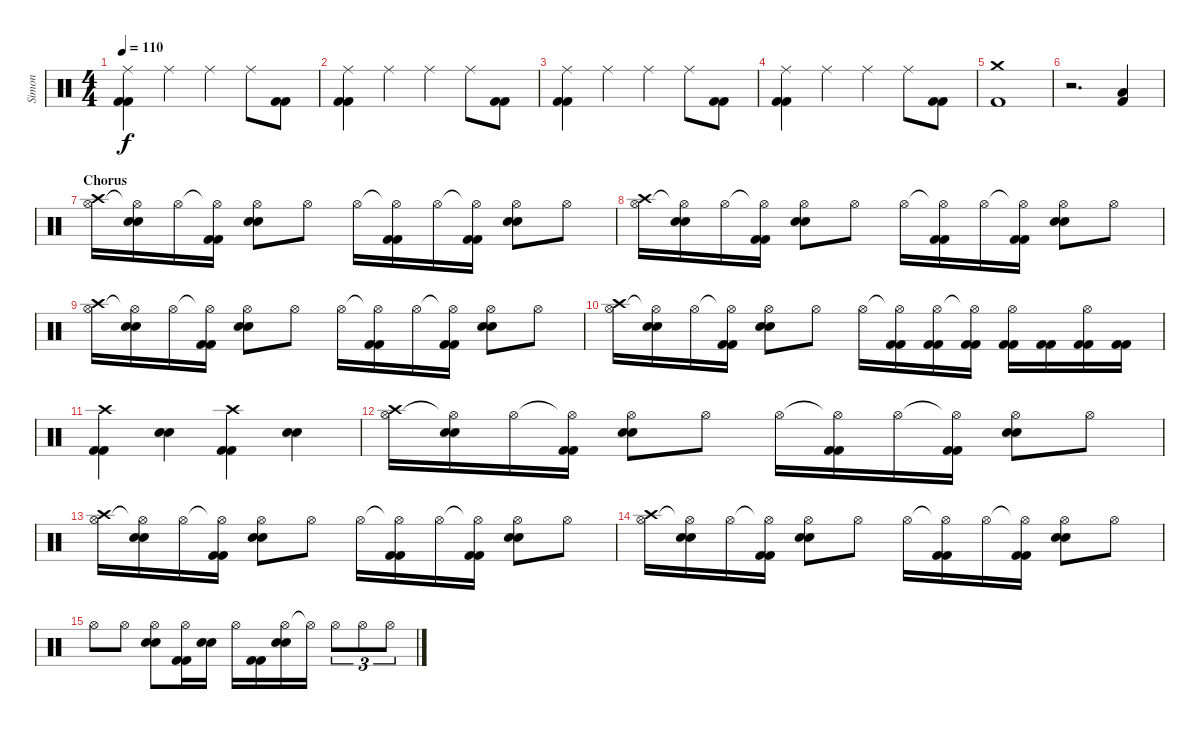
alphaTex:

\track ("Simon" "Simon") {instrument percussion}
\staff {score}
\articulation defaults
\ts (4 4)
\tempo 110
\clef neutral
\ks c
("Ride (middle)" "Kick (hit) 2" "Kick (hit) 2").4{dy f} "Ride (middle)".4 "Ride (middle)".4 "Ride (middle)".8 ("Kick (hit) 2" "Kick (hit) 2").8 |
("Ride (middle)" "Kick (hit) 2" "Kick (hit) 2").4 "Ride (middle)".4 "Ride (middle)".4 "Ride (middle)".8 ("Kick (hit) 2" "Kick (hit) 2").8 |
("Ride (middle)" "Kick (hit) 2" "Kick (hit) 2").4 "Ride (middle)".4 "Ride (middle)".4 "Ride (middle)".8 ("Kick (hit) 2" "Kick (hit) 2").8 |
("Ride (middle)" "Kick (hit) 2" "Kick (hit) 2").4 "Ride (middle)".4 "Ride (middle)".4 "Ride (middle)".8 ("Kick (hit) 2" "Kick (hit) 2").8 |
("Crash medium (hit)" "Kick (hit) 2").1 |
r.2{d} ("Kick (hit) 2" "Low Tom (hit)").4{volume 16} |
\section ("" "Chorus")
("Hi-Hat (open)" "Crash high (hit)").16 ("Hi-Hat (open)"{t} "Electric Snare (hit)" "Electric Snare (hit)").16 "Hi-Hat (open)".16 ("Hi-Hat (open)"{t} "Kick (hit) 2" "Kick (hit) 2").16 ("Hi-Hat (open)" "Electric Snare (hit)" "Electric Snare (hit)").8 "Hi-Hat (open)".8 "Hi-Hat (open)".16 ("Hi-Hat (open)"{t} "Kick (hit) 2" "Kick (hit) 2").16 "Hi-Hat (open)".16 ("Hi-Hat (open)"{t} "Kick (hit) 2" "Kick (hit) 2").16 ("Hi-Hat (open)" "Electric Snare (hit)" "Electric Snare (hit)").8 "Hi-Hat (open)".8 |
("Hi-Hat (open)" "Crash high (hit)").16 ("Hi-Hat (open)"{t} "Electric Snare (hit)" "Electric Snare (hit)").16 "Hi-Hat (open)".16 ("Hi-Hat (open)"{t} "Kick (hit) 2" "Kick (hit) 2").16 ("Hi-Hat (open)" "Electric Snare (hit)" "Electric Snare (hit)").8 "Hi-Hat (open)".8 "Hi-Hat (open)".16 ("Hi-Hat (open)"{t} "Kick (hit) 2" "Kick (hit) 2").16 "Hi-Hat (open)".16 ("Hi-Hat (open)"{t} "Kick (hit) 2" "Kick (hit) 2").16 ("Hi-Hat (open)" "Electric Snare (hit)" "Electric Snare (hit)").8 "Hi-Hat (open)".8 |
("Hi-Hat (open)" "Crash high (hit)").16 ("Hi-Hat (open)"{t} "Electric Snare (hit)" "Electric Snare (hit)").16 "Hi-Hat (open)".16 ("Hi-Hat (open)"{t} "Kick (hit) 2" "Kick (hit) 2").16 ("Hi-Hat (open)" "Electric Snare (hit)" "Electric Snare (hit)").8 "Hi-Hat (open)".8 "Hi-Hat (open)".16 ("Hi-Hat (open)"{t} "Kick (hit) 2" "Kick (hit) 2").16 "Hi-Hat (open)".16 ("Hi-Hat (open)"{t} "Kick (hit) 2" "Kick (hit) 2").16 ("Hi-Hat (open)" "Electric Snare (hit)" "Electric Snare (hit)").8 "Hi-Hat (open)".8 |
("Hi-Hat (open)" "Crash high (hit)").16 ("Hi-Hat (open)"{t} "Electric Snare (hit)" "Electric Snare (hit)").16 "Hi-Hat (open)".16 ("Hi-Hat (open)"{t} "Kick (hit) 2" "Kick (hit) 2").16 ("Hi-Hat (open)" "Electric Snare (hit)" "Electric Snare (hit)").8 "Hi-Hat (open)".8 "Hi-Hat (open)".16 ("Hi-Hat (open)"{t} "Kick (hit) 2" "Kick (hit) 2").16 ("Hi-Hat (open)" "Kick (hit) 2" "Kick (hit) 2").16 ("Hi-Hat (open)"{t} "Kick (hit) 2" "Kick (hit) 2").16 ("Hi-Hat (open)" "Kick (hit) 2" "Kick (hit) 2").16 ("Kick (hit) 2" "Kick (hit) 2").16 ("Hi-Hat (open)" "Kick (hit) 2" "Kick (hit) 2").16 ("Kick (hit) 2" "Kick (hit) 2").16 |
("Crash high (hit)" "Kick (hit) 2" "Kick (hit) 2").4 ("Electric Snare (hit)" "Electric Snare (hit)").4 ("Crash high (hit)" "Kick (hit) 2" "Kick (hit) 2").4 ("Electric Snare (hit)" "Electric Snare (hit)").4 |
("Hi-Hat (open)" "Crash high (hit)").16 ("Hi-Hat (open)"{t} "Electric Snare (hit)" "Electric Snare (hit)").16 "Hi-Hat (open)".16 ("Hi-Hat (open)"{t} "Kick (hit) 2" "Kick (hit) 2").16 ("Hi-Hat (open)" "Electric Snare (hit)" "Electric Snare (hit)").8 "Hi-Hat (open)".8 "Hi-Hat (open)".16 ("Hi-Hat (open)"{t} "Kick (hit) 2" "Kick (hit) 2").16 "Hi-Hat (open)".16 ("Hi-Hat (open)"{t} "Kick (hit) 2" "Kick (hit) 2").16 ("Hi-Hat (open)" "Electric Snare (hit)" "Electric Snare (hit)").8 "Hi-Hat (open)".8 |
("Hi-Hat (open)" "Crash high (hit)").16 ("Hi-Hat (open)"{t} "Electric Snare (hit)" "Electric Snare (hit)").16 "Hi-Hat (open)".16 ("Hi-Hat (open)"{t} "Kick (hit) 2" "Kick (hit) 2").16 ("Hi-Hat (open)" "Electric Snare (hit)" "Electric Snare (hit)").8 "Hi-Hat (open)".8 "Hi-Hat (open)".16 ("Hi-Hat (open)"{t} "Kick (hit) 2" "Kick (hit) 2").16 "Hi-Hat (open)".16 ("Hi-Hat (open)"{t} "Kick (hit) 2" "Kick (hit) 2").16 ("Hi-Hat (open)" "Electric Snare (hit)" "Electric Snare (hit)").8 "Hi-Hat (open)".8 |
("Hi-Hat (open)" "Crash high (hit)").16 ("Hi-Hat (open)"{t} "Electric Snare (hit)" "Electric Snare (hit)").16 "Hi-Hat (open)".16 ("Hi-Hat (open)"{t} "Kick (hit) 2" "Kick (hit) 2").16 ("Hi-Hat (open)" "Electric Snare (hit)" "Electric Snare (hit)").8 "Hi-Hat (open)".8 "Hi-Hat (open)".16 ("Hi-Hat (open)"{t} "Kick (hit) 2" "Kick (hit) 2").16 "Hi-Hat (open)".16 ("Hi-Hat (open)"{t} "Kick (hit) 2" "Kick (hit) 2").16 ("Hi-Hat (open)" "Electric Snare (hit)" "Electric Snare (hit)").8 "Hi-Hat (open)".8 |
"Hi-Hat (open)".8 "Hi-Hat (open)".8 ("Hi-Hat (open)" "Electric Snare (hit)" "Electric Snare (hit)").8 ("Hi-Hat (open)" "Kick (hit) 2" "Kick (hit) 2").16 ("Electric Snare (hit)" "Electric Snare (hit)").16 "Hi-Hat (open)".16 ("Kick (hit) 2" "Kick (hit) 2").16 ("Hi-Hat (open)" "Electric Snare (hit)" "Electric Snare (hit)").16 "Hi-Hat (open)"{t}.16 "Hi-Hat (open)".8{tu (3 2)} "Hi-Hat (open)".8{tu (3 2)} "Hi-Hat (open)".8{tu (3 2)}
